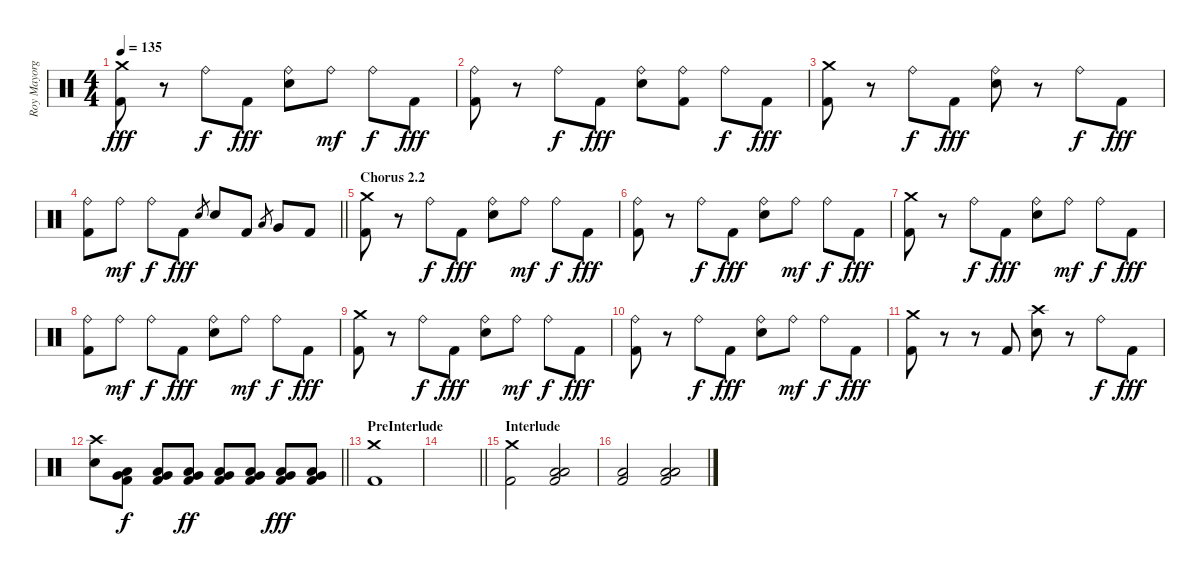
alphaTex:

\track ("Roy Mayorga" "Roy Mayorg") {instrument percussion}
\staff {score}
\articulation defaults
\ts (4 4)
\tempo 135
\clef neutral
\ks c
("Crash medium (hit)" "Kick (hit) 2").8{dy fff} r.8 "Ride (bell)".8{dy f} "Kick (hit) 2".8{dy fff} ("Ride (bell)" "Electric Snare (hit)").8 "Ride (bell)".8{dy mf} "Ride (bell)".8{dy f} "Kick (hit) 2".8{dy fff} |
("Ride (bell)" "Kick (hit) 2").8 r.8 "Ride (bell)".8{dy f} "Kick (hit) 2".8{dy fff} ("Ride (bell)" "Electric Snare (hit)").8 ("Ride (bell)" "Kick (hit) 2").8 "Ride (bell)".8{dy f} "Kick (hit) 2".8{dy fff} |
("Crash medium (hit)" "Kick (hit) 2").8 r.8 "Ride (bell)".8{dy f} "Kick (hit) 2".8{dy fff} ("Ride (bell)" "Electric Snare (hit)").8 r.8 "Ride (bell)".8{dy f} "Kick (hit) 2".8{dy fff} |
\barLineRight lightlight
("Ride (bell)" "Kick (hit) 2").8 "Ride (bell)".8{dy mf} "Ride (bell)".8{dy f} "Kick (hit) 2".8{dy fff} "Electric Snare (hit)".8{gr} "Electric Snare (hit)".8 "Kick (hit) 2".8 "Low Floor Tom (hit)".8{gr} "Very Low Tom (hit)".8 "Kick (hit) 2".8 |
\section ("" "Chorus 2.2")
("Crash medium (hit)" "Kick (hit) 2").8 r.8 "Ride (bell)".8{dy f} "Kick (hit) 2".8{dy fff} ("Ride (bell)" "Electric Snare (hit)").8 "Ride (bell)".8{dy mf} "Ride (bell)".8{dy f} "Kick (hit) 2".8{dy fff} |
("Ride (bell)" "Kick (hit) 2").8 r.8 "Ride (bell)".8{dy f} "Kick (hit) 2".8{dy fff} ("Ride (bell)" "Electric Snare (hit)").8 "Ride (bell)".8{dy mf} "Ride (bell)".8{dy f} "Kick (hit) 2".8{dy fff} |
("Crash medium (hit)" "Kick (hit) 2").8 r.8 "Ride (bell)".8{dy f} "Kick (hit) 2".8{dy fff} ("Ride (bell)" "Electric Snare (hit)").8 "Ride (bell)".8{dy mf} "Ride (bell)".8{dy f} "Kick (hit) 2".8{dy fff} |
("Ride (bell)" "Kick (hit) 2").8 "Ride (bell)".8{dy mf} "Ride (bell)".8{dy f} "Kick (hit) 2".8{dy fff} ("Ride (bell)" "Electric Snare (hit)").8 "Ride (bell)".8{dy mf} "Ride (bell)".8{dy f} "Kick (hit) 2".8{dy fff} |
("Crash medium (hit)" "Kick (hit) 2").8 r.8 "Ride (bell)".8{dy f} "Kick (hit) 2".8{dy fff} ("Ride (bell)" "Electric Snare (hit)").8 "Ride (bell)".8{dy mf} "Ride (bell)".8{dy f} "Kick (hit) 2".8{dy fff} |
("Ride (bell)" "Kick (hit) 2").8 r.8 "Ride (bell)".8{dy f} "Kick (hit) 2".8{dy fff} ("Ride (bell)" "Electric Snare (hit)").8 "Ride (bell)".8{dy mf} "Ride (bell)".8{dy f} "Kick (hit) 2".8{dy fff} |
("Crash medium (hit)" "Kick (hit) 2").8 r.8 r.8 "Kick (hit) 2".8 ("Crash high (hit)" "Electric Snare (hit)").8 r.8 "Ride (bell)".8{dy f} "Kick (hit) 2".8{dy fff} |
\barLineRight lightlight
("Crash high (hit)" "Electric Snare (hit)").8 ("Very Low Tom (hit)" "Low Floor Tom (hit)" "Kick (hit) 2").8{dy f} ("Very Low Tom (hit)" "Low Floor Tom (hit)" "Kick (hit) 2").8 ("Very Low Tom (hit)" "Low Floor Tom (hit)" "Kick (hit) 2").8{dy ff} ("Very Low Tom (hit)" "Low Floor Tom (hit)" "Kick (hit) 2").8 ("Very Low Tom (hit)" "Low Floor Tom (hit)" "Kick (hit) 2").8 ("Very Low Tom (hit)" "Low Floor Tom (hit)" "Kick (hit) 2").8{dy fff} ("Very Low Tom (hit)" "Low Floor Tom (hit)" "Kick (hit) 2").8 |
\section ("" "PreInterlude")
("Crash medium (hit)" "Kick (hit) 2").1 |
\barLineRight lightlight
|
\section ("" "Interlude")
("Crash medium (hit)" "Kick (hit) 2").2 ("Low Tom (hit)" "Low Floor Tom (hit)" "Kick (hit) 2").2 |
("Low Floor Tom (hit)" "Kick (hit) 2").2 ("Low Tom (hit)" "Low Floor Tom (hit)" "Kick (hit) 2").2
